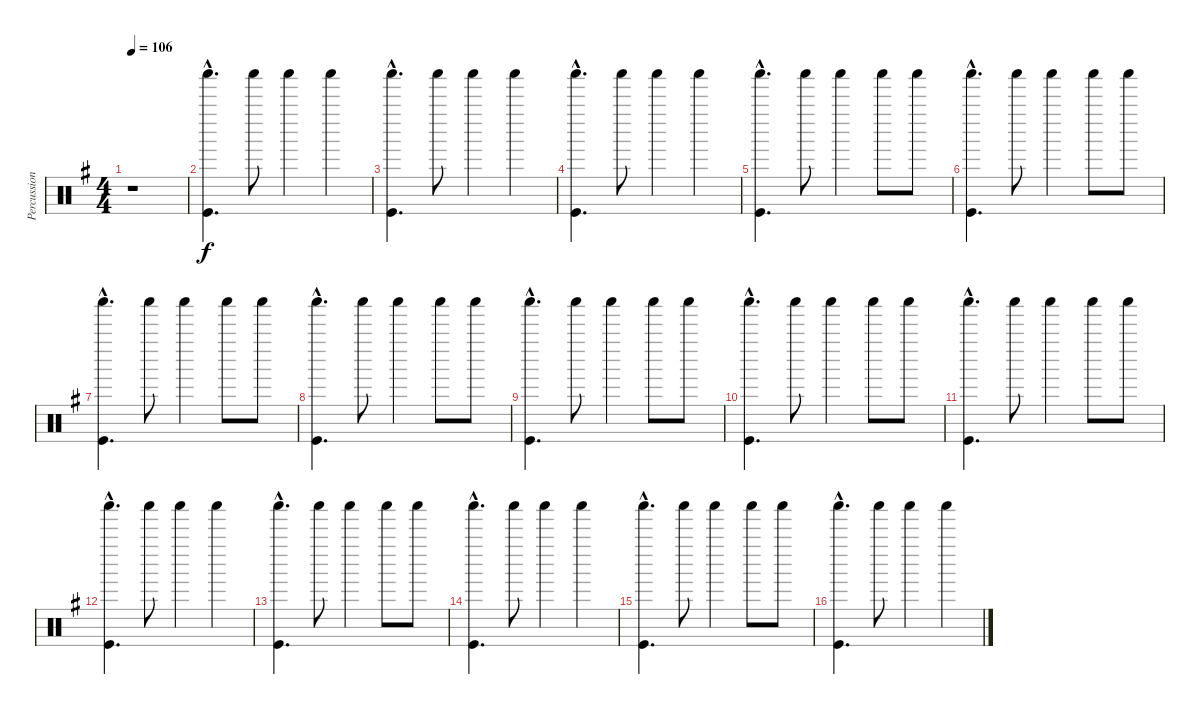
\track ("Percussion" "Percussion") {instrument percussion}
\staff {score}
\articulation defaults
\ts (4 4)
\tempo 106
\clef neutral
\ks g
r.1{dy f} |
("Shaker (hit)"{hac} "Kick (hit)"{hac}).4{d} "Shaker (hit)".8 "Shaker (hit)".4 "Shaker (hit)".4 |
("Shaker (hit)"{hac} "Kick (hit)"{hac}).4{d} "Shaker (hit)".8 "Shaker (hit)".4 "Shaker (hit)".4 |
("Shaker (hit)"{hac} "Kick (hit)"{hac}).4{d} "Shaker (hit)".8 "Shaker (hit)".4 "Shaker (hit)".4 |
("Shaker (hit)"{hac} "Kick (hit)"{hac}).4{d} "Shaker (hit)".8 "Shaker (hit)".4 "Shaker (hit)".8 "Shaker (hit)".8 |
("Shaker (hit)"{hac} "Kick (hit)"{hac}).4{d} "Shaker (hit)".8 "Shaker (hit)".4 "Shaker (hit)".8 "Shaker (hit)".8 |
("Shaker (hit)"{hac} "Kick (hit)"{hac}).4{d} "Shaker (hit)".8 "Shaker (hit)".4 "Shaker (hit)".8 "Shaker (hit)".8 |
("Shaker (hit)"{hac} "Kick (hit)"{hac}).4{d} "Shaker (hit)".8 "Shaker (hit)".4 "Shaker (hit)".8 "Shaker (hit)".8 |
("Shaker (hit)"{hac} "Kick (hit)"{hac}).4{d} "Shaker (hit)".8 "Shaker (hit)".4 "Shaker (hit)".8 "Shaker (hit)".8 |
("Shaker (hit)"{hac} "Kick (hit)"{hac}).4{d} "Shaker (hit)".8 "Shaker (hit)".4 "Shaker (hit)".8 "Shaker (hit)".8 |
("Shaker (hit)"{hac} "Kick (hit)"{hac}).4{d} "Shaker (hit)".8 "Shaker (hit)".4 "Shaker (hit)".8 "Shaker (hit)".8 |
("Shaker (hit)"{hac} "Kick (hit)"{hac}).4{d} "Shaker (hit)".8 "Shaker (hit)".4 "Shaker (hit)".4 |
("Shaker (hit)"{hac} "Kick (hit)"{hac}).4{d} "Shaker (hit)".8 "Shaker (hit)".4 "Shaker (hit)".8 "Shaker (hit)".8 |
("Shaker (hit)"{hac} "Kick (hit)"{hac}).4{d} "Shaker (hit)".8 "Shaker (hit)".4 "Shaker (hit)".4 |
("Shaker (hit)"{hac} "Kick (hit)"{hac}).4{d} "Shaker (hit)".8 "Shaker (hit)".4 "Shaker (hit)".8 "Shaker (hit)".8 |
("Shaker (hit)"{hac} "Kick (hit)"{hac}).4{d} "Shaker (hit)".8 "Shaker (hit)".4 "Shaker (hit)".4
